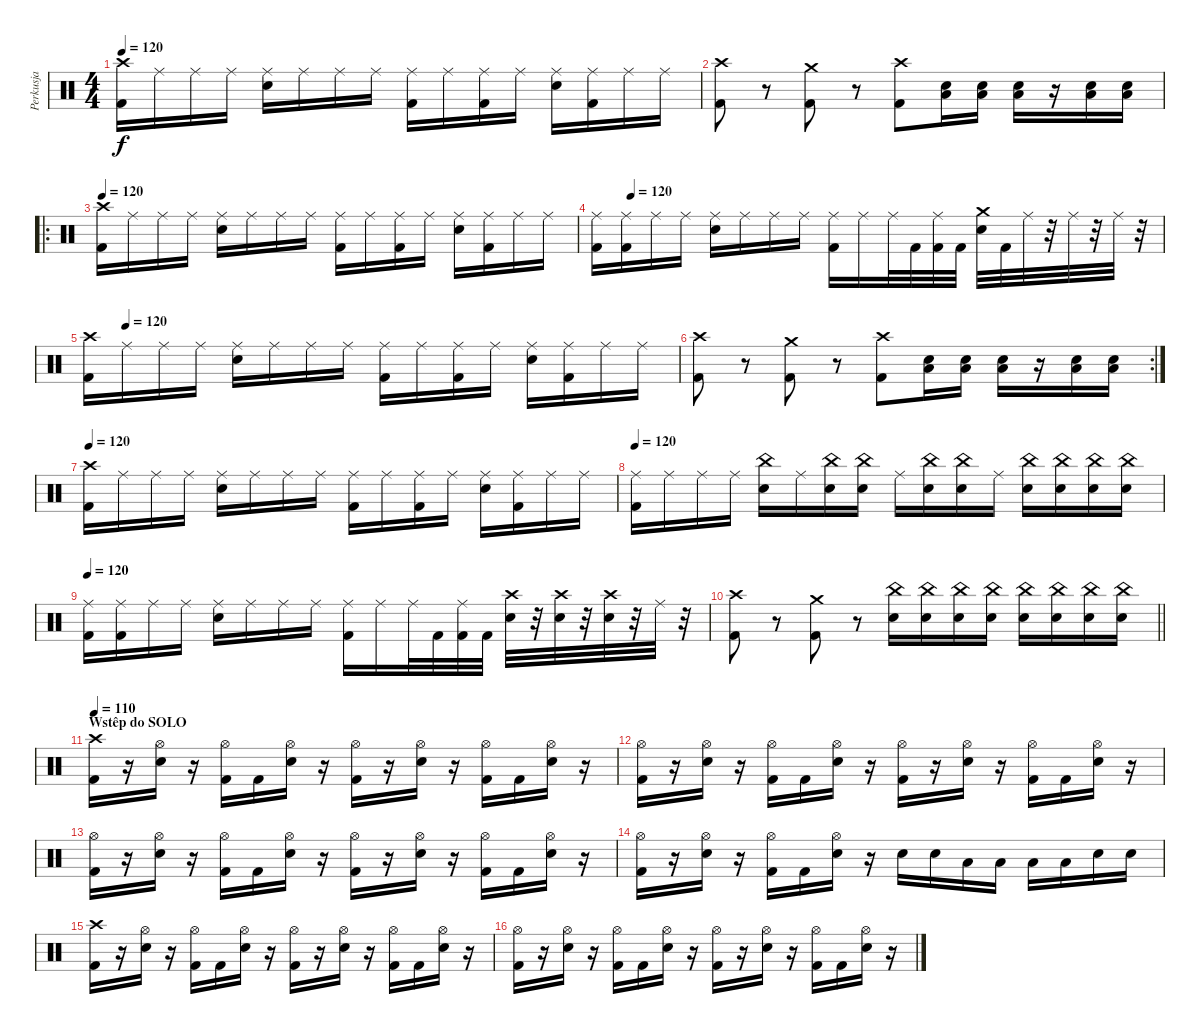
\track ("Perkusja" "Perkusja") {instrument percussion}
\staff {score}
\articulation defaults
\ts (4 4)
\tempo 120
\clef neutral
\ks c
("Crash high (hit)" "Kick (hit) 2").16{dy f} "Ride (middle)".16 "Ride (middle)".16 "Ride (middle)".16 ("Ride (middle)" "Snare (hit) 2").16 "Ride (middle)".16 "Ride (middle)".16 "Ride (middle)".16 ("Ride (middle)" "Kick (hit) 2").16 "Ride (middle)".16 ("Ride (middle)" "Kick (hit) 2").16 "Ride (middle)".16 ("Ride (middle)" "Snare (hit) 2").16 ("Ride (middle)" "Kick (hit) 2").16 "Ride (middle)".16 "Ride (middle)".16 |
("Crash high (hit)" "Kick (hit) 2").8 r.8 ("Crash medium (hit)" "Kick (hit) 2").8 r.8 ("Crash high (hit)" "Kick (hit) 2").8 ("Snare (hit) 2" "Low Floor Tom (hit)").16 ("Snare (hit) 2" "Low Floor Tom (hit)").16 ("Snare (hit) 2" "Low Floor Tom (hit)").16 r.16 ("Snare (hit) 2" "Low Floor Tom (hit)").16 ("Snare (hit) 2" "Low Floor Tom (hit)").16 |
\ro
\tempo 120
("Crash high (hit)" "Kick (hit) 2").16 "Ride (middle)".16 "Ride (middle)".16 "Ride (middle)".16 ("Ride (middle)" "Snare (hit) 2").16 "Ride (middle)".16 "Ride (middle)".16 "Ride (middle)".16 ("Ride (middle)" "Kick (hit) 2").16 "Ride (middle)".16 ("Ride (middle)" "Kick (hit) 2").16 "Ride (middle)".16 ("Ride (middle)" "Snare (hit) 2").16 ("Ride (middle)" "Kick (hit) 2").16 "Ride (middle)".16 "Ride (middle)".16 |
\tempo (120 0.0625)
("Ride (middle)" "Kick (hit) 2").16 ("Ride (middle)" "Kick (hit) 2").16 "Ride (middle)".16 "Ride (middle)".16 ("Ride (middle)" "Snare (hit) 2").16 "Ride (middle)".16 "Ride (middle)".16 "Ride (middle)".16 ("Ride (middle)" "Kick (hit) 2").16 "Ride (middle)".16 "Ride (middle)".32 "Kick (hit) 2".32 ("Ride (middle)" "Kick (hit) 2").32 "Kick (hit) 2".32 ("Crash medium (hit)" "Snare (hit) 2").32 "Kick (hit) 2".32 "Ride (middle)".32 r.32 "Ride (middle)".32 r.32 "Ride (middle)".32 r.32 |
\tempo (120 0.0625)
("Crash high (hit)" "Kick (hit) 2").16 "Ride (middle)".16 "Ride (middle)".16 "Ride (middle)".16 ("Ride (middle)" "Snare (hit) 2").16 "Ride (middle)".16 "Ride (middle)".16 "Ride (middle)".16 ("Ride (middle)" "Kick (hit) 2").16 "Ride (middle)".16 ("Ride (middle)" "Kick (hit) 2").16 "Ride (middle)".16 ("Ride (middle)" "Snare (hit) 2").16 ("Ride (middle)" "Kick (hit) 2").16 "Ride (middle)".16 "Ride (middle)".16 |
\rc 2
("Crash high (hit)" "Kick (hit) 2").8 r.8 ("Crash medium (hit)" "Kick (hit) 2").8 r.8 ("Crash high (hit)" "Kick (hit) 2").8 ("Snare (hit) 2" "Low Floor Tom (hit)").16 ("Snare (hit) 2" "Low Floor Tom (hit)").16 ("Snare (hit) 2" "Low Floor Tom (hit)").16 r.16 ("Snare (hit) 2" "Low Floor Tom (hit)").16 ("Snare (hit) 2" "Low Floor Tom (hit)").16 |
\tempo 120
("Crash high (hit)" "Kick (hit) 2").16 "Ride (middle)".16 "Ride (middle)".16 "Ride (middle)".16 ("Ride (middle)" "Snare (hit) 2").16 "Ride (middle)".16 "Ride (middle)".16 "Ride (middle)".16 ("Ride (middle)" "Kick (hit) 2").16 "Ride (middle)".16 ("Ride (middle)" "Kick (hit) 2").16 "Ride (middle)".16 ("Ride (middle)" "Snare (hit) 2").16 ("Ride (middle)" "Kick (hit) 2").16 "Ride (middle)".16 "Ride (middle)".16 |
\tempo 120
("Ride (middle)" "Kick (hit) 2").16 "Ride (middle)".16 "Ride (middle)".16 "Ride (middle)".16 ("China (hit)" "Snare (hit) 2").16 "Ride (middle)".16 ("China (hit)" "Snare (hit) 2").16 ("China (hit)" "Snare (hit) 2").16 "Ride (middle)".16 ("China (hit)" "Snare (hit) 2").16 ("China (hit)" "Snare (hit) 2").16 "Ride (middle)".16 ("China (hit)" "Snare (hit) 2").16 ("China (hit)" "Snare (hit) 2").16 ("China (hit)" "Snare (hit) 2").16 ("China (hit)" "Snare (hit) 2").16 |
\tempo 120
("Ride (middle)" "Kick (hit) 2").16 ("Ride (middle)" "Kick (hit) 2").16 "Ride (middle)".16 "Ride (middle)".16 ("Ride (middle)" "Snare (hit) 2").16 "Ride (middle)".16 "Ride (middle)".16 "Ride (middle)".16 ("Ride (middle)" "Kick (hit) 2").16 "Ride (middle)".16 "Ride (middle)".32 "Kick (hit) 2".32 ("Ride (middle)" "Kick (hit) 2").32 "Kick (hit) 2".32 ("Crash high (hit)" "Snare (hit) 2").32 r.32 ("Crash high (hit)" "Snare (hit) 2").32 r.32 ("Crash high (hit)" "Snare (hit) 2").32 r.32 "Ride (middle)".32 r.32 |
\barLineRight lightlight
("Crash high (hit)" "Kick (hit) 2").8 r.8 ("Crash medium (hit)" "Kick (hit) 2").8 r.8 ("China (hit)" "Snare (hit) 2").16 ("China (hit)" "Snare (hit) 2").16 ("China (hit)" "Snare (hit) 2").16 ("China (hit)" "Snare (hit) 2").16 ("China (hit)" "Snare (hit) 2").16 ("China (hit)" "Snare (hit) 2").16 ("China (hit)" "Snare (hit) 2").16 ("China (hit)" "Snare (hit) 2").16 |
\section ("" "Wstêp do SOLO")
\tempo 110
("Crash high (hit)" "Kick (hit) 2").16 r.16 ("Hi-Hat (open)" "Snare (hit) 2").16 r.16 ("Hi-Hat (open)" "Kick (hit) 2").16 "Kick (hit) 2".16 ("Hi-Hat (open)" "Snare (hit) 2").16 r.16 ("Hi-Hat (open)" "Kick (hit) 2").16 r.16 ("Hi-Hat (open)" "Snare (hit) 2").16 r.16 ("Hi-Hat (open)" "Kick (hit) 2").16 "Kick (hit) 2".16 ("Hi-Hat (open)" "Snare (hit) 2").16 r.16 |
("Hi-Hat (open)" "Kick (hit) 2").16 r.16 ("Hi-Hat (open)" "Snare (hit) 2").16 r.16 ("Hi-Hat (open)" "Kick (hit) 2").16 "Kick (hit) 2".16 ("Hi-Hat (open)" "Snare (hit) 2").16 r.16 ("Hi-Hat (open)" "Kick (hit) 2").16 r.16 ("Hi-Hat (open)" "Snare (hit) 2").16 r.16 ("Hi-Hat (open)" "Kick (hit) 2").16 "Kick (hit) 2".16 ("Hi-Hat (open)" "Snare (hit) 2").16 r.16 |
("Hi-Hat (open)" "Kick (hit) 2").16 r.16 ("Hi-Hat (open)" "Snare (hit) 2").16 r.16 ("Hi-Hat (open)" "Kick (hit) 2").16 "Kick (hit) 2".16 ("Hi-Hat (open)" "Snare (hit) 2").16 r.16 ("Hi-Hat (open)" "Kick (hit) 2").16 r.16 ("Hi-Hat (open)" "Snare (hit) 2").16 r.16 ("Hi-Hat (open)" "Kick (hit) 2").16 "Kick (hit) 2".16 ("Hi-Hat (open)" "Snare (hit) 2").16 r.16 |
("Hi-Hat (open)" "Kick (hit) 2").16 r.16 ("Hi-Hat (open)" "Snare (hit) 2").16 r.16 ("Hi-Hat (open)" "Kick (hit) 2").16 "Kick (hit) 2".16 ("Hi-Hat (open)" "Snare (hit) 2").16 r.16 "Snare (hit) 2".16 "Snare (hit) 2".16 "Low Tom (hit)".16 "Low Tom (hit)".16 "Low Tom (hit)".16 "Low Tom (hit)".16 "Snare (hit) 2".16 "Snare (hit) 2".16 |
("Crash high (hit)" "Kick (hit) 2").16 r.16 ("Hi-Hat (open)" "Snare (hit) 2").16 r.16 ("Hi-Hat (open)" "Kick (hit) 2").16 "Kick (hit) 2".16 ("Hi-Hat (open)" "Snare (hit) 2").16 r.16 ("Hi-Hat (open)" "Kick (hit) 2").16 r.16 ("Hi-Hat (open)" "Snare (hit) 2").16 r.16 ("Hi-Hat (open)" "Kick (hit) 2").16 "Kick (hit) 2".16 ("Hi-Hat (open)" "Snare (hit) 2").16 r.16 |
("Hi-Hat (open)" "Kick (hit) 2").16 r.16 ("Hi-Hat (open)" "Snare (hit) 2").16 r.16 ("Hi-Hat (open)" "Kick (hit) 2").16 "Kick (hit) 2".16 ("Hi-Hat (open)" "Snare (hit) 2").16 r.16 ("Hi-Hat (open)" "Kick (hit) 2").16 r.16 ("Hi-Hat (open)" "Snare (hit) 2").16 r.16 ("Hi-Hat (open)" "Kick (hit) 2").16 "Kick (hit) 2".16 ("Hi-Hat (open)" "Snare (hit) 2").16 r.16
